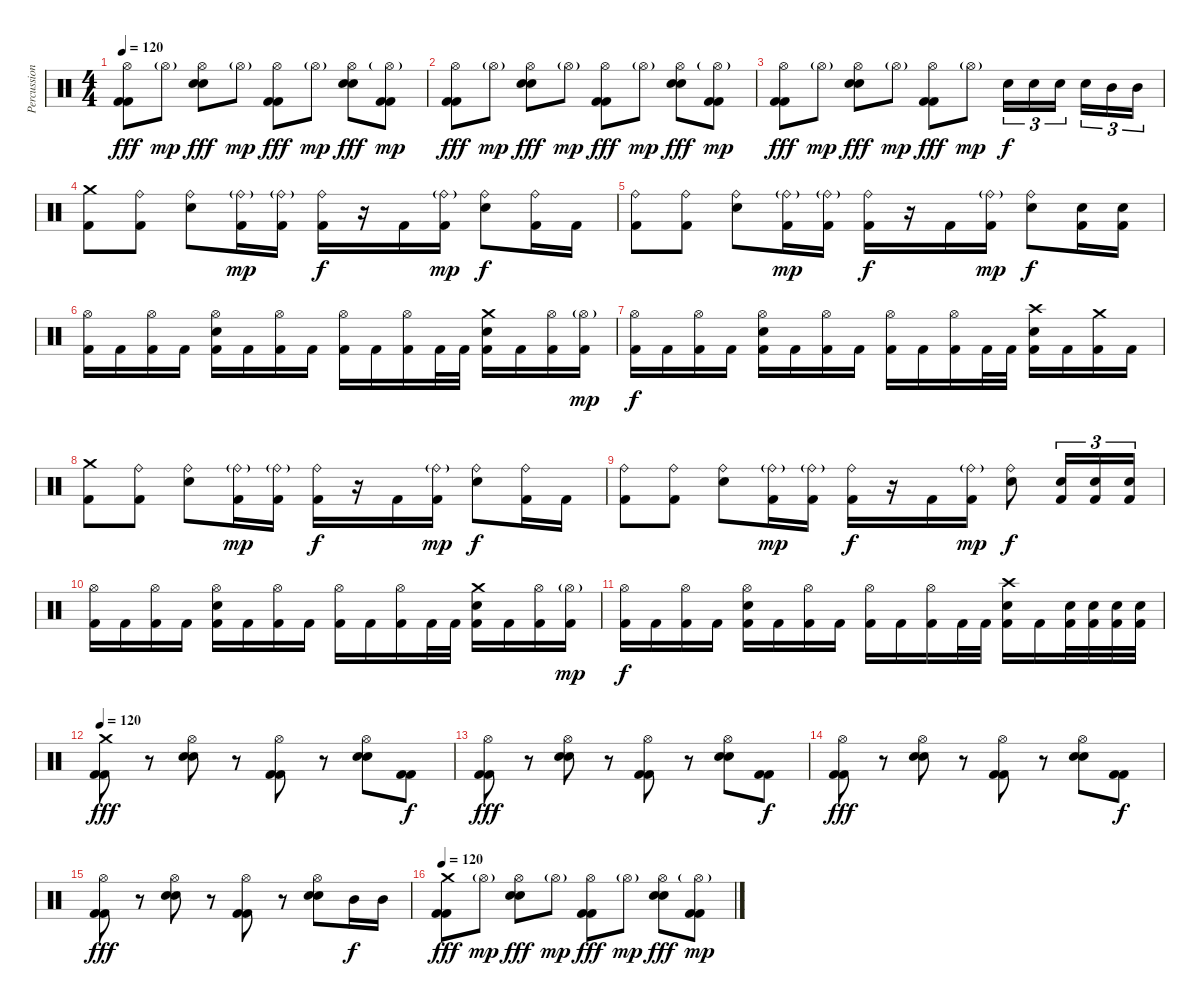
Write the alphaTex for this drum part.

\track ("Percussions" "Percussion") {instrument percussion}
\staff {score}
\articulation defaults
\ts (4 4)
\tempo 120
\clef neutral
\ks c
("Kick (hit) 2" "Kick (hit) 2" "Hi-Hat (open)").8{dy fff} "Hi-Hat (open)"{g}.8{dy mp} ("Electric Snare (hit)" "Electric Snare (hit)" "Hi-Hat (open)").8{dy fff} "Hi-Hat (open)"{g}.8{dy mp} ("Kick (hit) 2" "Kick (hit) 2" "Hi-Hat (open)").8{dy fff} "Hi-Hat (open)"{g}.8{dy mp} ("Electric Snare (hit)" "Electric Snare (hit)" "Hi-Hat (open)").8{dy fff} ("Kick (hit) 2" "Kick (hit) 2" "Hi-Hat (open)"{g}).8{dy mp} |
("Kick (hit) 2" "Kick (hit) 2" "Hi-Hat (open)").8{dy fff} "Hi-Hat (open)"{g}.8{dy mp} ("Electric Snare (hit)" "Electric Snare (hit)" "Hi-Hat (open)").8{dy fff} "Hi-Hat (open)"{g}.8{dy mp} ("Kick (hit) 2" "Kick (hit) 2" "Hi-Hat (open)").8{dy fff} "Hi-Hat (open)"{g}.8{dy mp} ("Electric Snare (hit)" "Electric Snare (hit)" "Hi-Hat (open)").8{dy fff} ("Kick (hit) 2" "Kick (hit) 2" "Hi-Hat (open)"{g}).8{dy mp} |
("Kick (hit) 2" "Kick (hit) 2" "Hi-Hat (open)").8{dy fff} "Hi-Hat (open)"{g}.8{dy mp} ("Electric Snare (hit)" "Electric Snare (hit)" "Hi-Hat (open)").8{dy fff} "Hi-Hat (open)"{g}.8{dy mp} ("Kick (hit) 2" "Kick (hit) 2" "Hi-Hat (open)").8{dy fff} "Hi-Hat (open)"{g}.8{dy mp} "Electric Snare (hit)".16{tu (3 2) dy f} "Electric Snare (hit)".16{tu (3 2)} "Snare (hit) 2".16{tu (3 2)} "Snare (hit) 2".16{tu (3 2)} "Mid Tom (hit)".16{tu (3 2)} "Mid Tom (hit)".16{tu (3 2)} |
("Kick (hit) 2" "Crash medium (hit)").8 ("Kick (hit) 2" "Ride (bell)").8 ("Electric Snare (hit)" "Ride (bell)").8 ("Kick (hit) 2" "Ride (bell)"{g}).16{dy mp} ("Kick (hit) 2" "Ride (bell)"{g}).16 ("Kick (hit) 2" "Ride (bell)").16{dy f} r.16 "Kick (hit) 2".16 ("Kick (hit) 2" "Ride (bell)"{g}).16{dy mp} ("Electric Snare (hit)" "Ride (bell)").8{dy f} ("Kick (hit) 2" "Ride (bell)").16 "Kick (hit) 2".16 |
("Kick (hit) 2" "Ride (bell)").8 ("Kick (hit) 2" "Ride (bell)").8 ("Electric Snare (hit)" "Ride (bell)").8 ("Kick (hit) 2" "Ride (bell)"{g}).16{dy mp} ("Kick (hit) 2" "Ride (bell)"{g}).16 ("Kick (hit) 2" "Ride (bell)").16{dy f} r.16 "Kick (hit) 2".16 ("Kick (hit) 2" "Ride (bell)"{g}).16{dy mp} ("Electric Snare (hit)" "Ride (bell)").8{dy f} ("Kick (hit) 2" "Electric Snare (hit)").16 ("Kick (hit) 2" "Electric Snare (hit)").16 |
("Kick (hit) 2" "Hi-Hat (open)").16 "Kick (hit) 2".16 ("Kick (hit) 2" "Hi-Hat (open)").16 "Kick (hit) 2".16 ("Kick (hit) 2" "Electric Snare (hit)" "Hi-Hat (open)").16 "Kick (hit) 2".16 ("Kick (hit) 2" "Hi-Hat (open)").16 "Kick (hit) 2".16 ("Kick (hit) 2" "Hi-Hat (open)").16 "Kick (hit) 2".16 ("Kick (hit) 2" "Hi-Hat (open)").16 "Kick (hit) 2".32 "Kick (hit) 2".32 ("Kick (hit) 2" "Electric Snare (hit)" "Crash medium (hit)").16 "Kick (hit) 2".16 ("Kick (hit) 2" "Hi-Hat (open)").16 ("Kick (hit) 2" "Hi-Hat (open)"{g}).16{dy mp} |
("Kick (hit) 2" "Hi-Hat (open)").16{dy f} "Kick (hit) 2".16 ("Kick (hit) 2" "Hi-Hat (open)").16 "Kick (hit) 2".16 ("Kick (hit) 2" "Electric Snare (hit)" "Hi-Hat (open)").16 "Kick (hit) 2".16 ("Kick (hit) 2" "Hi-Hat (open)").16 "Kick (hit) 2".16 ("Kick (hit) 2" "Hi-Hat (open)").16 "Kick (hit) 2".16 ("Kick (hit) 2" "Hi-Hat (open)").16 "Kick (hit) 2".32 "Kick (hit) 2".32 ("Kick (hit) 2" "Electric Snare (hit)" "Crash high (hit)").16 "Kick (hit) 2".16 ("Kick (hit) 2" "Crash medium (hit)").16 "Kick (hit) 2".16 |
("Kick (hit) 2" "Crash medium (hit)").8 ("Kick (hit) 2" "Ride (bell)").8 ("Electric Snare (hit)" "Ride (bell)").8 ("Kick (hit) 2" "Ride (bell)"{g}).16{dy mp} ("Kick (hit) 2" "Ride (bell)"{g}).16 ("Kick (hit) 2" "Ride (bell)").16{dy f} r.16 "Kick (hit) 2".16 ("Kick (hit) 2" "Ride (bell)"{g}).16{dy mp} ("Electric Snare (hit)" "Ride (bell)").8{dy f} ("Kick (hit) 2" "Ride (bell)").16 "Kick (hit) 2".16 |
("Kick (hit) 2" "Ride (bell)").8 ("Kick (hit) 2" "Ride (bell)").8 ("Electric Snare (hit)" "Ride (bell)").8 ("Kick (hit) 2" "Ride (bell)"{g}).16{dy mp} ("Kick (hit) 2" "Ride (bell)"{g}).16 ("Kick (hit) 2" "Ride (bell)").16{dy f} r.16 "Kick (hit) 2".16 ("Kick (hit) 2" "Ride (bell)"{g}).16{dy mp} ("Electric Snare (hit)" "Ride (bell)").8{dy f} ("Kick (hit) 2" "Electric Snare (hit)").16{tu (3 2)} ("Kick (hit) 2" "Electric Snare (hit)").16{tu (3 2)} ("Kick (hit) 2" "Electric Snare (hit)").16{tu (3 2)} |
("Kick (hit) 2" "Hi-Hat (open)").16 "Kick (hit) 2".16 ("Kick (hit) 2" "Hi-Hat (open)").16 "Kick (hit) 2".16 ("Kick (hit) 2" "Electric Snare (hit)" "Hi-Hat (open)").16 "Kick (hit) 2".16 ("Kick (hit) 2" "Hi-Hat (open)").16 "Kick (hit) 2".16 ("Kick (hit) 2" "Hi-Hat (open)").16 "Kick (hit) 2".16 ("Kick (hit) 2" "Hi-Hat (open)").16 "Kick (hit) 2".32 "Kick (hit) 2".32 ("Kick (hit) 2" "Electric Snare (hit)" "Crash medium (hit)").16 "Kick (hit) 2".16 ("Kick (hit) 2" "Hi-Hat (open)").16 ("Kick (hit) 2" "Hi-Hat (open)"{g}).16{dy mp} |
("Kick (hit) 2" "Hi-Hat (open)").16{dy f} "Kick (hit) 2".16 ("Kick (hit) 2" "Hi-Hat (open)").16 "Kick (hit) 2".16 ("Kick (hit) 2" "Electric Snare (hit)" "Hi-Hat (open)").16 "Kick (hit) 2".16 ("Kick (hit) 2" "Hi-Hat (open)").16 "Kick (hit) 2".16 ("Kick (hit) 2" "Hi-Hat (open)").16 "Kick (hit) 2".16 ("Kick (hit) 2" "Hi-Hat (open)").16 "Kick (hit) 2".32 "Kick (hit) 2".32 ("Kick (hit) 2" "Electric Snare (hit)" "Crash high (hit)").16 "Kick (hit) 2".16 ("Kick (hit) 2" "Electric Snare (hit)").32 ("Kick (hit) 2" "Electric Snare (hit)").32 ("Kick (hit) 2" "Electric Snare (hit)").32 ("Kick (hit) 2" "Electric Snare (hit)").32 |
\tempo 120
("Kick (hit) 2" "Kick (hit) 2" "Crash medium (hit)").8{dy fff} r.8 ("Electric Snare (hit)" "Electric Snare (hit)" "Hi-Hat (open)").8 r.8 ("Kick (hit) 2" "Kick (hit) 2" "Hi-Hat (open)").8 r.8 ("Electric Snare (hit)" "Electric Snare (hit)" "Hi-Hat (open)").8 ("Kick (hit) 2" "Kick (hit) 2").8{dy f} |
("Kick (hit) 2" "Kick (hit) 2" "Hi-Hat (open)").8{dy fff} r.8 ("Electric Snare (hit)" "Electric Snare (hit)" "Hi-Hat (open)").8 r.8 ("Kick (hit) 2" "Kick (hit) 2" "Hi-Hat (open)").8 r.8 ("Electric Snare (hit)" "Electric Snare (hit)" "Hi-Hat (open)").8 ("Kick (hit) 2" "Kick (hit) 2").8{dy f} |
("Kick (hit) 2" "Kick (hit) 2" "Hi-Hat (open)").8{dy fff} r.8 ("Electric Snare (hit)" "Electric Snare (hit)" "Hi-Hat (open)").8 r.8 ("Kick (hit) 2" "Kick (hit) 2" "Hi-Hat (open)").8 r.8 ("Electric Snare (hit)" "Electric Snare (hit)" "Hi-Hat (open)").8 ("Kick (hit) 2" "Kick (hit) 2").8{dy f} |
("Kick (hit) 2" "Kick (hit) 2" "Hi-Hat (open)").8{dy fff} r.8 ("Electric Snare (hit)" "Electric Snare (hit)" "Hi-Hat (open)").8 r.8 ("Kick (hit) 2" "Kick (hit) 2" "Hi-Hat (open)").8 r.8 ("Electric Snare (hit)" "Electric Snare (hit)" "Hi-Hat (open)").8 "Mid Tom (hit)".16{dy f} "Mid Tom (hit)".16 |
\tempo 120
("Kick (hit) 2" "Kick (hit) 2" "Crash medium (hit)").8{dy fff} "Hi-Hat (open)"{g}.8{dy mp} ("Electric Snare (hit)" "Electric Snare (hit)" "Hi-Hat (open)").8{dy fff} "Hi-Hat (open)"{g}.8{dy mp} ("Kick (hit) 2" "Kick (hit) 2" "Hi-Hat (open)").8{dy fff} "Hi-Hat (open)"{g}.8{dy mp} ("Electric Snare (hit)" "Electric Snare (hit)" "Hi-Hat (open)").8{dy fff} ("Kick (hit) 2" "Kick (hit) 2" "Hi-Hat (open)"{g}).8{dy mp}
